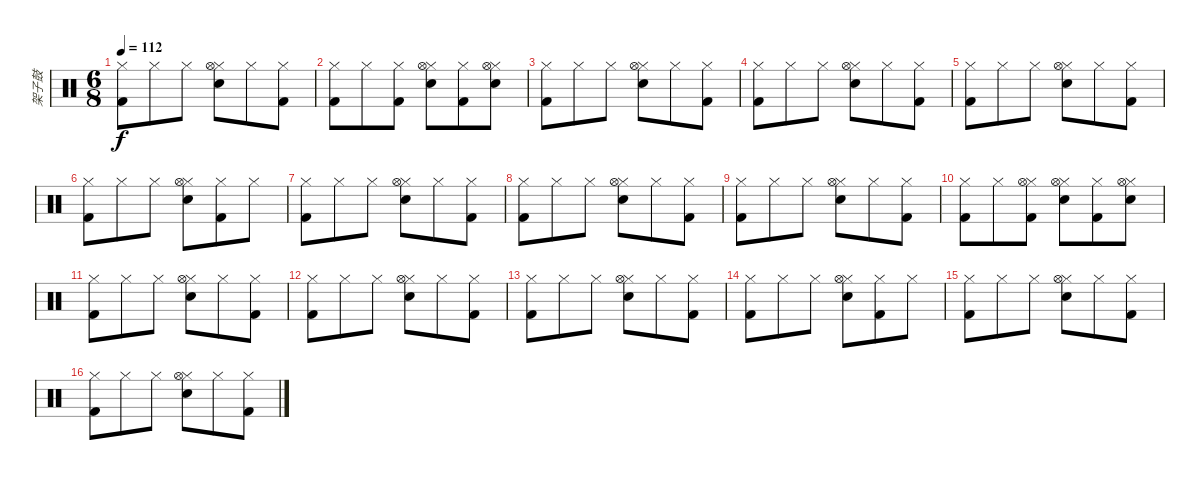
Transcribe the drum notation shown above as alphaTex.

\track ("架子鼓" "架子鼓") {instrument percussion bank 1}
\staff {score}
\articulation defaults
\ts (6 8)
\tempo 112
\clef neutral
\ks c
("Hi-Hat (closed)" "Kick (hit) 2").8{dy f} "Hi-Hat (closed)".8 "Hi-Hat (closed)".8 ("Hi-Hat (closed)" "Snare (hit) 2" "Hi-Hat (open)").8 "Hi-Hat (closed)".8 ("Hi-Hat (closed)" "Kick (hit) 2").8 |
("Hi-Hat (closed)" "Kick (hit) 2").8 "Hi-Hat (closed)".8 ("Hi-Hat (closed)" "Kick (hit) 2").8 ("Hi-Hat (closed)" "Snare (hit) 2" "Hi-Hat (open)").8 ("Hi-Hat (closed)" "Kick (hit) 2").8 ("Hi-Hat (closed)" "Snare (hit) 2" "Hi-Hat (open)").8 |
("Hi-Hat (closed)" "Kick (hit) 2").8 "Hi-Hat (closed)".8 "Hi-Hat (closed)".8 ("Hi-Hat (closed)" "Snare (hit) 2" "Hi-Hat (open)").8 "Hi-Hat (closed)".8 ("Hi-Hat (closed)" "Kick (hit) 2").8 |
("Hi-Hat (closed)" "Kick (hit) 2").8 "Hi-Hat (closed)".8 "Hi-Hat (closed)".8 ("Hi-Hat (closed)" "Snare (hit) 2" "Hi-Hat (open)").8 "Hi-Hat (closed)".8 ("Hi-Hat (closed)" "Kick (hit) 2").8 |
("Hi-Hat (closed)" "Kick (hit) 2").8 "Hi-Hat (closed)".8 "Hi-Hat (closed)".8 ("Hi-Hat (closed)" "Snare (hit) 2" "Hi-Hat (open)").8 "Hi-Hat (closed)".8 ("Hi-Hat (closed)" "Kick (hit) 2").8 |
("Hi-Hat (closed)" "Kick (hit) 2").8 "Hi-Hat (closed)".8 "Hi-Hat (closed)".8 ("Hi-Hat (closed)" "Snare (hit) 2" "Hi-Hat (open)").8 ("Hi-Hat (closed)" "Kick (hit) 2").8 "Hi-Hat (closed)".8 |
("Hi-Hat (closed)" "Kick (hit) 2").8 "Hi-Hat (closed)".8 "Hi-Hat (closed)".8 ("Hi-Hat (closed)" "Snare (hit) 2" "Hi-Hat (open)").8 "Hi-Hat (closed)".8 ("Hi-Hat (closed)" "Kick (hit) 2").8 |
("Hi-Hat (closed)" "Kick (hit) 2").8 "Hi-Hat (closed)".8 "Hi-Hat (closed)".8 ("Hi-Hat (closed)" "Snare (hit) 2" "Hi-Hat (open)").8 "Hi-Hat (closed)".8 ("Hi-Hat (closed)" "Kick (hit) 2").8 |
("Hi-Hat (closed)" "Kick (hit) 2").8 "Hi-Hat (closed)".8 "Hi-Hat (closed)".8 ("Hi-Hat (closed)" "Snare (hit) 2" "Hi-Hat (open)").8 "Hi-Hat (closed)".8 ("Hi-Hat (closed)" "Kick (hit) 2").8 |
("Hi-Hat (closed)" "Kick (hit) 2").8 "Hi-Hat (closed)".8 ("Hi-Hat (closed)" "Hi-Hat (open)" "Kick (hit) 2").8 ("Hi-Hat (closed)" "Snare (hit) 2" "Hi-Hat (open)").8 ("Hi-Hat (closed)" "Kick (hit) 2").8 ("Hi-Hat (closed)" "Snare (hit) 2" "Hi-Hat (open)").8 |
("Hi-Hat (closed)" "Kick (hit) 2").8 "Hi-Hat (closed)".8 "Hi-Hat (closed)".8 ("Hi-Hat (closed)" "Snare (hit) 2" "Hi-Hat (open)").8 "Hi-Hat (closed)".8 ("Hi-Hat (closed)" "Kick (hit) 2").8 |
("Hi-Hat (closed)" "Kick (hit) 2").8 "Hi-Hat (closed)".8 "Hi-Hat (closed)".8 ("Hi-Hat (closed)" "Snare (hit) 2" "Hi-Hat (open)").8 "Hi-Hat (closed)".8 ("Hi-Hat (closed)" "Kick (hit) 2").8 |
("Hi-Hat (closed)" "Kick (hit) 2").8 "Hi-Hat (closed)".8 "Hi-Hat (closed)".8 ("Hi-Hat (closed)" "Snare (hit) 2" "Hi-Hat (open)").8 "Hi-Hat (closed)".8 ("Hi-Hat (closed)" "Kick (hit) 2").8 |
("Hi-Hat (closed)" "Kick (hit) 2").8 "Hi-Hat (closed)".8 "Hi-Hat (closed)".8 ("Hi-Hat (closed)" "Snare (hit) 2" "Hi-Hat (open)").8 ("Hi-Hat (closed)" "Kick (hit) 2").8 "Hi-Hat (closed)".8 |
("Hi-Hat (closed)" "Kick (hit) 2").8 "Hi-Hat (closed)".8 "Hi-Hat (closed)".8 ("Hi-Hat (closed)" "Snare (hit) 2" "Hi-Hat (open)").8 "Hi-Hat (closed)".8 ("Hi-Hat (closed)" "Kick (hit) 2").8 |
("Hi-Hat (closed)" "Kick (hit) 2").8 "Hi-Hat (closed)".8 "Hi-Hat (closed)".8 ("Hi-Hat (closed)" "Snare (hit) 2" "Hi-Hat (open)").8 "Hi-Hat (closed)".8 ("Hi-Hat (closed)" "Kick (hit) 2").8
